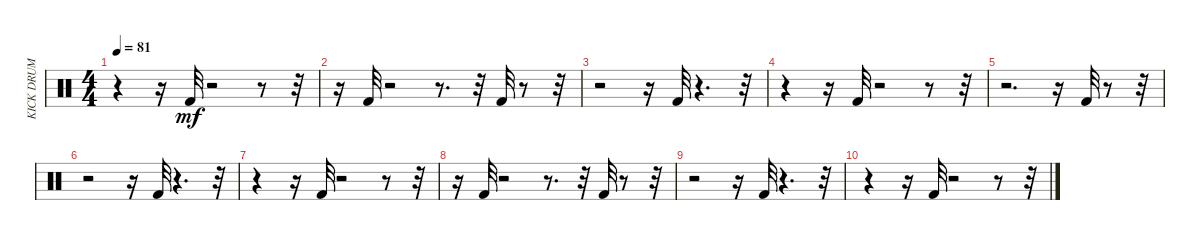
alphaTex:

\track ("KICK DRUM LOW." "KICK DRUM ") {instrument percussion}
\staff {score}
\articulation defaults
\ts (4 4)
\tempo 81
\clef neutral
\ks c
r.4{dy mf} r.16 "Kick (hit) 2".32 r.2 r.8 r.32 |
r.16 "Kick (hit) 2".32 r.2 r.8{d} r.32 "Kick (hit) 2".32 r.8 r.32 |
r.2 r.16 "Kick (hit) 2".32 r.4{d} r.32 |
r.4 r.16 "Kick (hit) 2".32 r.2 r.8 r.32 |
r.2{d} r.16 "Kick (hit) 2".32 r.8 r.32 |
r.2 r.16 "Kick (hit) 2".32 r.4{d} r.32 |
r.4 r.16 "Kick (hit) 2".32 r.2 r.8 r.32 |
r.16 "Kick (hit) 2".32 r.2 r.8{d} r.32 "Kick (hit) 2".32 r.8 r.32 |
r.2 r.16 "Kick (hit) 2".32 r.4{d} r.32 |
r.4 r.16 "Kick (hit) 2".32 r.2 r.8 r.32
